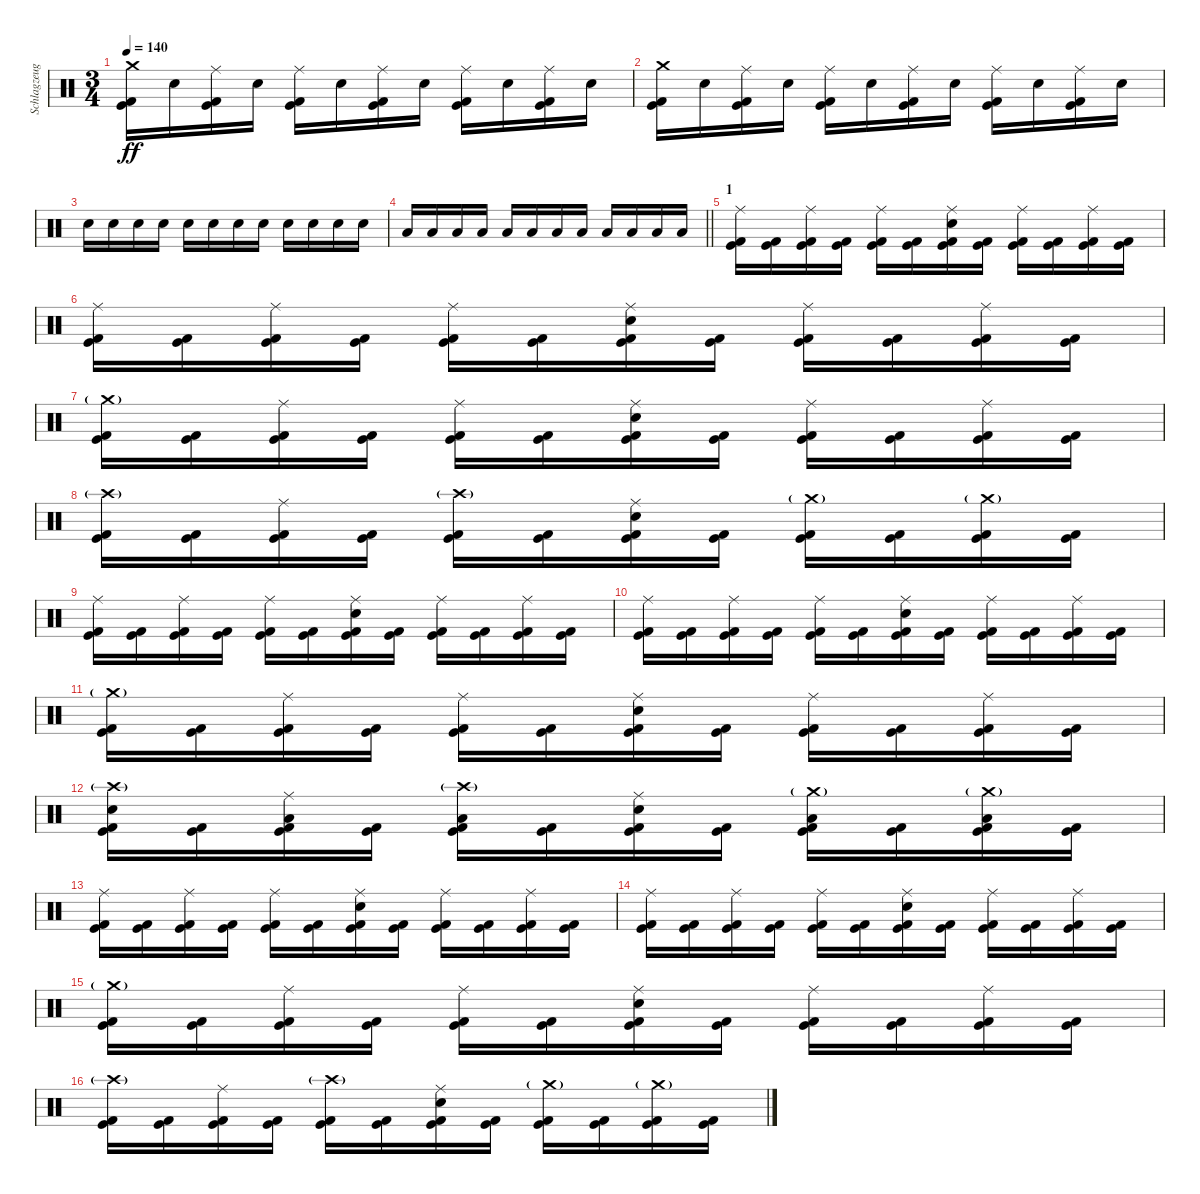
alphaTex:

\track ("Schlagzeug" "Schlagzeug") {instrument percussion}
\staff {score}
\articulation defaults
\ts (3 4)
\tempo 140
\clef neutral
\ks c
("Crash medium (hit)" "Kick (hit)" "Kick (hit) 2").16{dy ff} "Electric Snare (hit)".16 ("Ride (middle)" "Kick (hit)" "Kick (hit) 2").16 "Electric Snare (hit)".16 ("Ride (middle)" "Kick (hit)" "Kick (hit) 2").16 "Electric Snare (hit)".16 ("Ride (middle)" "Kick (hit)" "Kick (hit) 2").16 "Electric Snare (hit)".16 ("Ride (middle)" "Kick (hit)" "Kick (hit) 2").16 "Electric Snare (hit)".16 ("Ride (middle)" "Kick (hit)" "Kick (hit) 2").16 "Electric Snare (hit)".16 |
("Crash medium (hit)" "Kick (hit)" "Kick (hit) 2").16 "Electric Snare (hit)".16 ("Ride (middle)" "Kick (hit)" "Kick (hit) 2").16 "Electric Snare (hit)".16 ("Ride (middle)" "Kick (hit)" "Kick (hit) 2").16 "Electric Snare (hit)".16 ("Ride (middle)" "Kick (hit)" "Kick (hit) 2").16 "Electric Snare (hit)".16 ("Ride (middle)" "Kick (hit)" "Kick (hit) 2").16 "Electric Snare (hit)".16 ("Ride (middle)" "Kick (hit)" "Kick (hit) 2").16 "Electric Snare (hit)".16 |
"Snare (hit) 2".16 "Snare (hit) 2".16 "Snare (hit) 2".16 "Snare (hit) 2".16 "Snare (hit) 2".16 "Snare (hit) 2".16 "Snare (hit) 2".16 "Snare (hit) 2".16 "Snare (hit) 2".16 "Snare (hit) 2".16 "Snare (hit) 2".16 "Snare (hit) 2".16 |
\barLineRight lightlight "Low Tom (hit)".16 "Low Tom (hit)".16 "Low Tom (hit)".16 "Low Tom (hit)".16 "Low Tom (hit)".16 "Low Tom (hit)".16 "Low Floor Tom (hit)".16 "Low Floor Tom (hit)".16 "Low Floor Tom (hit)".16 "Low Floor Tom (hit)".16 "Low Floor Tom (hit)".16 "Low Floor Tom (hit)".16
|
\section ("" "1")
("Ride (middle)" "Kick (hit)" "Kick (hit) 2").16 ("Kick (hit)" "Kick (hit) 2").16 ("Ride (middle)" "Kick (hit)" "Kick (hit) 2").16 ("Kick (hit)" "Kick (hit) 2").16 ("Ride (middle)" "Kick (hit)" "Kick (hit) 2").16 ("Kick (hit)" "Kick (hit) 2").16 ("Ride (middle)" "Kick (hit)" "Kick (hit) 2" "Electric Snare (hit)").16 ("Kick (hit)" "Kick (hit) 2").16 ("Ride (middle)" "Kick (hit)" "Kick (hit) 2").16 ("Kick (hit)" "Kick (hit) 2").16 ("Ride (middle)" "Kick (hit)" "Kick (hit) 2").16 ("Kick (hit)" "Kick (hit) 2").16 |
("Ride (middle)" "Kick (hit)" "Kick (hit) 2").16 ("Kick (hit)" "Kick (hit) 2").16 ("Ride (middle)" "Kick (hit)" "Kick (hit) 2").16 ("Kick (hit)" "Kick (hit) 2").16 ("Ride (middle)" "Kick (hit)" "Kick (hit) 2").16 ("Kick (hit)" "Kick (hit) 2").16 ("Ride (middle)" "Kick (hit)" "Kick (hit) 2" "Electric Snare (hit)").16 ("Kick (hit)" "Kick (hit) 2").16 ("Ride (middle)" "Kick (hit)" "Kick (hit) 2").16 ("Kick (hit)" "Kick (hit) 2").16 ("Ride (middle)" "Kick (hit)" "Kick (hit) 2").16 ("Kick (hit)" "Kick (hit) 2").16 |
("Crash medium (hit)"{g} "Kick (hit)" "Kick (hit) 2").16 ("Kick (hit)" "Kick (hit) 2").16 ("Ride (middle)" "Kick (hit)" "Kick (hit) 2").16 ("Kick (hit)" "Kick (hit) 2").16 ("Ride (middle)" "Kick (hit)" "Kick (hit) 2").16 ("Kick (hit)" "Kick (hit) 2").16 ("Ride (middle)" "Kick (hit)" "Kick (hit) 2" "Electric Snare (hit)").16 ("Kick (hit)" "Kick (hit) 2").16 ("Ride (middle)" "Kick (hit)" "Kick (hit) 2").16 ("Kick (hit)" "Kick (hit) 2").16 ("Ride (middle)" "Kick (hit)" "Kick (hit) 2").16 ("Kick (hit)" "Kick (hit) 2").16 |
("Crash high (hit)"{g} "Kick (hit)" "Kick (hit) 2").16 ("Kick (hit)" "Kick (hit) 2").16 ("Ride (middle)" "Kick (hit)" "Kick (hit) 2").16 ("Kick (hit)" "Kick (hit) 2").16 ("Crash high (hit)"{g} "Kick (hit)" "Kick (hit) 2").16 ("Kick (hit)" "Kick (hit) 2").16 ("Ride (middle)" "Kick (hit)" "Kick (hit) 2" "Electric Snare (hit)").16 ("Kick (hit)" "Kick (hit) 2").16 ("Crash medium (hit)"{g} "Kick (hit)" "Kick (hit) 2").16 ("Kick (hit)" "Kick (hit) 2").16 ("Crash medium (hit)"{g} "Kick (hit)" "Kick (hit) 2").16 ("Kick (hit)" "Kick (hit) 2").16 |
("Ride (middle)" "Kick (hit)" "Kick (hit) 2").16 ("Kick (hit)" "Kick (hit) 2").16 ("Ride (middle)" "Kick (hit)" "Kick (hit) 2").16 ("Kick (hit)" "Kick (hit) 2").16 ("Ride (middle)" "Kick (hit)" "Kick (hit) 2").16 ("Kick (hit)" "Kick (hit) 2").16 ("Ride (middle)" "Kick (hit)" "Kick (hit) 2" "Electric Snare (hit)").16 ("Kick (hit)" "Kick (hit) 2").16 ("Ride (middle)" "Kick (hit)" "Kick (hit) 2").16 ("Kick (hit)" "Kick (hit) 2").16 ("Ride (middle)" "Kick (hit)" "Kick (hit) 2").16 ("Kick (hit)" "Kick (hit) 2").16 |
("Ride (middle)" "Kick (hit)" "Kick (hit) 2").16 ("Kick (hit)" "Kick (hit) 2").16 ("Ride (middle)" "Kick (hit)" "Kick (hit) 2").16 ("Kick (hit)" "Kick (hit) 2").16 ("Ride (middle)" "Kick (hit)" "Kick (hit) 2").16 ("Kick (hit)" "Kick (hit) 2").16 ("Ride (middle)" "Kick (hit)" "Kick (hit) 2" "Electric Snare (hit)").16 ("Kick (hit)" "Kick (hit) 2").16 ("Ride (middle)" "Kick (hit)" "Kick (hit) 2").16 ("Kick (hit)" "Kick (hit) 2").16 ("Ride (middle)" "Kick (hit)" "Kick (hit) 2").16 ("Kick (hit)" "Kick (hit) 2").16 |
("Crash medium (hit)"{g} "Kick (hit)" "Kick (hit) 2").16 ("Kick (hit)" "Kick (hit) 2").16 ("Ride (middle)" "Kick (hit)" "Kick (hit) 2").16 ("Kick (hit)" "Kick (hit) 2").16 ("Ride (middle)" "Kick (hit)" "Kick (hit) 2").16 ("Kick (hit)" "Kick (hit) 2").16 ("Ride (middle)" "Kick (hit)" "Kick (hit) 2" "Electric Snare (hit)").16 ("Kick (hit)" "Kick (hit) 2").16 ("Ride (middle)" "Kick (hit)" "Kick (hit) 2").16 ("Kick (hit)" "Kick (hit) 2").16 ("Ride (middle)" "Kick (hit)" "Kick (hit) 2").16 ("Kick (hit)" "Kick (hit) 2").16 |
("Crash high (hit)"{g} "Kick (hit)" "Kick (hit) 2" "Electric Snare (hit)").16 ("Kick (hit)" "Kick (hit) 2").16 ("Ride (middle)" "Kick (hit)" "Kick (hit) 2" "Low Tom (hit)").16 ("Kick (hit)" "Kick (hit) 2").16 ("Crash high (hit)"{g} "Kick (hit)" "Kick (hit) 2" "Low Floor Tom (hit)").16 ("Kick (hit)" "Kick (hit) 2").16 ("Ride (middle)" "Kick (hit)" "Kick (hit) 2" "Electric Snare (hit)").16 ("Kick (hit)" "Kick (hit) 2").16 ("Crash medium (hit)"{g} "Kick (hit)" "Kick (hit) 2" "Low Tom (hit)").16 ("Kick (hit)" "Kick (hit) 2").16 ("Crash medium (hit)"{g} "Kick (hit)" "Kick (hit) 2" "Low Floor Tom (hit)").16 ("Kick (hit)" "Kick (hit) 2").16 |
("Ride (middle)" "Kick (hit)" "Kick (hit) 2").16 ("Kick (hit)" "Kick (hit) 2").16 ("Ride (middle)" "Kick (hit)" "Kick (hit) 2").16 ("Kick (hit)" "Kick (hit) 2").16 ("Ride (middle)" "Kick (hit)" "Kick (hit) 2").16 ("Kick (hit)" "Kick (hit) 2").16 ("Ride (middle)" "Kick (hit)" "Kick (hit) 2" "Electric Snare (hit)").16 ("Kick (hit)" "Kick (hit) 2").16 ("Ride (middle)" "Kick (hit)" "Kick (hit) 2").16 ("Kick (hit)" "Kick (hit) 2").16 ("Ride (middle)" "Kick (hit)" "Kick (hit) 2").16 ("Kick (hit)" "Kick (hit) 2").16 |
("Ride (middle)" "Kick (hit)" "Kick (hit) 2").16 ("Kick (hit)" "Kick (hit) 2").16 ("Ride (middle)" "Kick (hit)" "Kick (hit) 2").16 ("Kick (hit)" "Kick (hit) 2").16 ("Ride (middle)" "Kick (hit)" "Kick (hit) 2").16 ("Kick (hit)" "Kick (hit) 2").16 ("Ride (middle)" "Kick (hit)" "Kick (hit) 2" "Electric Snare (hit)").16 ("Kick (hit)" "Kick (hit) 2").16 ("Ride (middle)" "Kick (hit)" "Kick (hit) 2").16 ("Kick (hit)" "Kick (hit) 2").16 ("Ride (middle)" "Kick (hit)" "Kick (hit) 2").16 ("Kick (hit)" "Kick (hit) 2").16 |
("Crash medium (hit)"{g} "Kick (hit)" "Kick (hit) 2").16 ("Kick (hit)" "Kick (hit) 2").16 ("Ride (middle)" "Kick (hit)" "Kick (hit) 2").16 ("Kick (hit)" "Kick (hit) 2").16 ("Ride (middle)" "Kick (hit)" "Kick (hit) 2").16 ("Kick (hit)" "Kick (hit) 2").16 ("Ride (middle)" "Kick (hit)" "Kick (hit) 2" "Electric Snare (hit)").16 ("Kick (hit)" "Kick (hit) 2").16 ("Ride (middle)" "Kick (hit)" "Kick (hit) 2").16 ("Kick (hit)" "Kick (hit) 2").16 ("Ride (middle)" "Kick (hit)" "Kick (hit) 2").16 ("Kick (hit)" "Kick (hit) 2").16 |
("Crash high (hit)"{g} "Kick (hit)" "Kick (hit) 2").16 ("Kick (hit)" "Kick (hit) 2").16 ("Ride (middle)" "Kick (hit)" "Kick (hit) 2").16 ("Kick (hit)" "Kick (hit) 2").16 ("Crash high (hit)"{g} "Kick (hit)" "Kick (hit) 2").16 ("Kick (hit)" "Kick (hit) 2").16 ("Ride (middle)" "Kick (hit)" "Kick (hit) 2" "Electric Snare (hit)").16 ("Kick (hit)" "Kick (hit) 2").16 ("Crash medium (hit)"{g} "Kick (hit)" "Kick (hit) 2").16 ("Kick (hit)" "Kick (hit) 2").16 ("Crash medium (hit)"{g} "Kick (hit)" "Kick (hit) 2").16 ("Kick (hit)" "Kick (hit) 2").16
